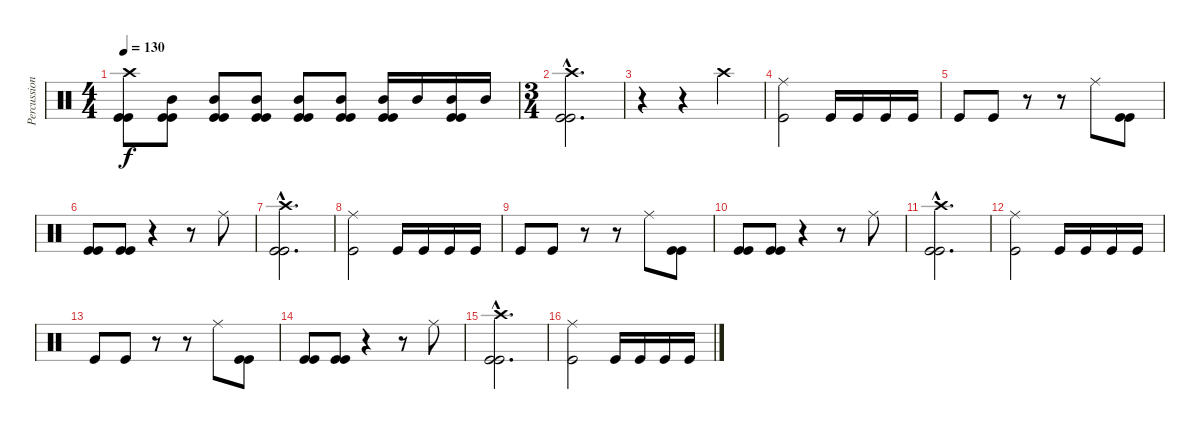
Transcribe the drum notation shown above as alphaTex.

\track ("Percussions" "Percussion") {instrument percussion}
\staff {score}
\articulation defaults
\ts (4 4)
\tempo 130
\clef neutral
\ks c
("Crash high (hit)" "Kick (hit)" "Kick (hit)").8{dy f} ("Mid Tom (hit)" "Kick (hit)" "Kick (hit)").8 ("Mid Tom (hit)" "Kick (hit)" "Kick (hit)").8 ("Mid Tom (hit)" "Kick (hit)" "Kick (hit)").8 ("Mid Tom (hit)" "Kick (hit)" "Kick (hit)").8 ("Mid Tom (hit)" "Kick (hit)" "Kick (hit)").8 ("Mid Tom (hit)" "Kick (hit)" "Kick (hit)").16 "Mid Tom (hit)".16 ("Mid Tom (hit)" "Kick (hit)" "Kick (hit)").16 "Mid Tom (hit)".16 |
\ts (3 4)
("Crash high (hit)"{hac} "Kick (hit)"{hac} "Kick (hit)"{hac}).2{d} |
r.4 r.4 "Crash high (hit)".4 |
("Ride (middle)" "Kick (hit)").2 "Kick (hit)".16 "Kick (hit)".16 "Kick (hit)".16 "Kick (hit)".16 |
"Kick (hit)".8 "Kick (hit)".8 r.8 r.8 "Ride (middle)".8 ("Kick (hit)" "Kick (hit)").8 |
("Kick (hit)" "Kick (hit)").8 ("Kick (hit)" "Kick (hit)").8 r.4 r.8 "Ride (middle)".8 |
("Crash high (hit)"{hac} "Kick (hit)"{hac} "Kick (hit)"{hac}).2{d} |
("Ride (middle)" "Kick (hit)").2 "Kick (hit)".16 "Kick (hit)".16 "Kick (hit)".16 "Kick (hit)".16 |
"Kick (hit)".8 "Kick (hit)".8 r.8 r.8 "Ride (middle)".8 ("Kick (hit)" "Kick (hit)").8 |
("Kick (hit)" "Kick (hit)").8 ("Kick (hit)" "Kick (hit)").8 r.4 r.8 "Ride (middle)".8 |
("Crash high (hit)"{hac} "Kick (hit)"{hac} "Kick (hit)"{hac}).2{d} |
("Ride (middle)" "Kick (hit)").2 "Kick (hit)".16 "Kick (hit)".16 "Kick (hit)".16 "Kick (hit)".16 |
"Kick (hit)".8 "Kick (hit)".8 r.8 r.8 "Ride (middle)".8 ("Kick (hit)" "Kick (hit)").8 |
("Kick (hit)" "Kick (hit)").8 ("Kick (hit)" "Kick (hit)").8 r.4 r.8 "Ride (middle)".8 |
("Crash high (hit)"{hac} "Kick (hit)"{hac} "Kick (hit)"{hac}).2{d} |
("Ride (middle)" "Kick (hit)").2 "Kick (hit)".16 "Kick (hit)".16 "Kick (hit)".16 "Kick (hit)".16
